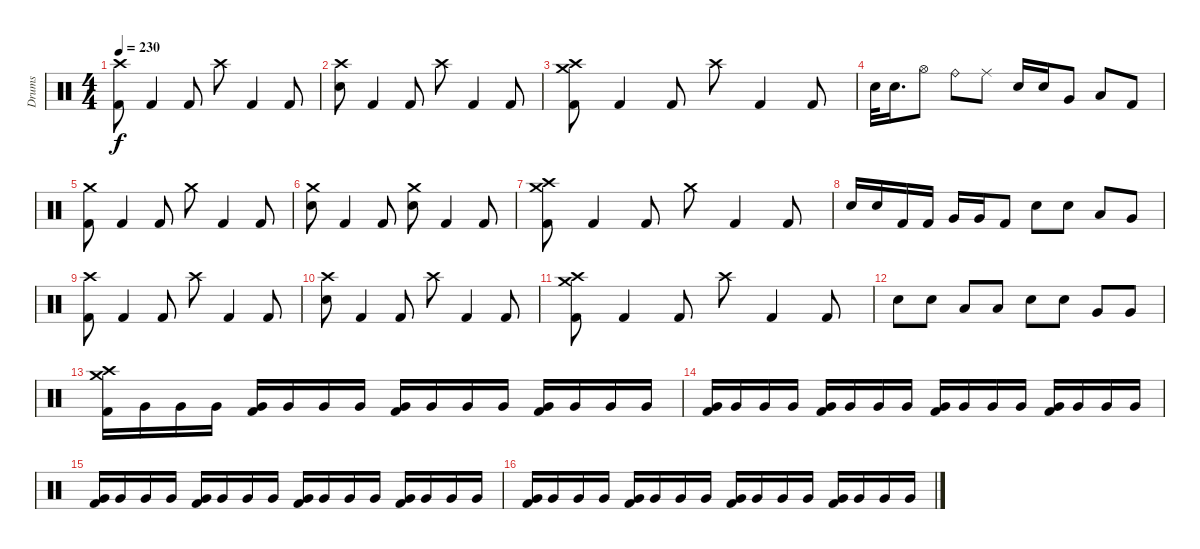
\track ("Drums" "Drums") {instrument percussion}
\staff {score}
\articulation defaults
\ts (4 4)
\tempo 230
\clef neutral
\ks c
("Crash high (hit)" "Kick (hit) 2").8{dy f} "Kick (hit) 2".4 "Kick (hit) 2".8 "Crash high (hit)".8 "Kick (hit) 2".4 "Kick (hit) 2".8 |
("Crash high (hit)" "Electric Snare (hit)").8 "Kick (hit) 2".4 "Kick (hit) 2".8 "Crash high (hit)".8 "Kick (hit) 2".4 "Kick (hit) 2".8 |
("Crash medium (hit)" "Crash high (hit)" "Kick (hit) 2").8 "Kick (hit) 2".4 "Kick (hit) 2".8 "Crash high (hit)".8 "Kick (hit) 2".4 "Kick (hit) 2".8 |
"Electric Snare (hit)".32 "Electric Snare (hit)".16{d} "Hi-Hat (open)".8 "Ride (bell)".8 "Ride (middle)".8 "Electric Snare (hit)".16 "Electric Snare (hit)".16 "Very Low Tom (hit)".8 "Low Floor Tom (hit)".8 "Kick (hit) 2".8 |
("Crash medium (hit)" "Kick (hit) 2").8 "Kick (hit) 2".4 "Kick (hit) 2".8 "Crash medium (hit)".8 "Kick (hit) 2".4 "Kick (hit) 2".8 |
("Crash medium (hit)" "Electric Snare (hit)").8 "Kick (hit) 2".4 "Kick (hit) 2".8 ("Crash medium (hit)" "Electric Snare (hit)").8 "Kick (hit) 2".4 "Kick (hit) 2".8 |
("Crash medium (hit)" "Crash high (hit)" "Kick (hit) 2").8 "Kick (hit) 2".4 "Kick (hit) 2".8 "Crash medium (hit)".8 "Kick (hit) 2".4 "Kick (hit) 2".8 |
"Electric Snare (hit)".16 "Electric Snare (hit)".16 "Kick (hit) 2".16 "Kick (hit) 2".16 "Very Low Tom (hit)".16 "Very Low Tom (hit)".16 "Kick (hit) 2".8 "Electric Snare (hit)".8 "Electric Snare (hit)".8 "Low Tom (hit)".8 "Very Low Tom (hit)".8 |
("Crash high (hit)" "Kick (hit) 2").8 "Kick (hit) 2".4 "Kick (hit) 2".8 "Crash high (hit)".8 "Kick (hit) 2".4 "Kick (hit) 2".8 |
("Crash high (hit)" "Electric Snare (hit)").8 "Kick (hit) 2".4 "Kick (hit) 2".8 "Crash high (hit)".8 "Kick (hit) 2".4 "Kick (hit) 2".8 |
("Crash medium (hit)" "Crash high (hit)" "Kick (hit) 2").8 "Kick (hit) 2".4 "Kick (hit) 2".8 "Crash high (hit)".8 "Kick (hit) 2".4 "Kick (hit) 2".8 |
"Electric Snare (hit)".8 "Electric Snare (hit)".8 "Low Tom (hit)".8 "Low Tom (hit)".8 "Electric Snare (hit)".8 "Electric Snare (hit)".8 "Very Low Tom (hit)".8 "Very Low Tom (hit)".8 |
("Crash medium (hit)" "Crash high (hit)" "Kick (hit) 2").16 "Very Low Tom (hit)".16 "Very Low Tom (hit)".16 "Very Low Tom (hit)".16 ("Very Low Tom (hit)" "Kick (hit) 2").16 "Very Low Tom (hit)".16 "Very Low Tom (hit)".16 "Very Low Tom (hit)".16 ("Very Low Tom (hit)" "Kick (hit) 2").16 "Very Low Tom (hit)".16 "Very Low Tom (hit)".16 "Very Low Tom (hit)".16 ("Very Low Tom (hit)" "Kick (hit) 2").16 "Very Low Tom (hit)".16 "Very Low Tom (hit)".16 "Very Low Tom (hit)".16 |
("Very Low Tom (hit)" "Kick (hit) 2").16 "Very Low Tom (hit)".16 "Very Low Tom (hit)".16 "Very Low Tom (hit)".16 ("Very Low Tom (hit)" "Kick (hit) 2").16 "Very Low Tom (hit)".16 "Very Low Tom (hit)".16 "Very Low Tom (hit)".16 ("Very Low Tom (hit)" "Kick (hit) 2").16 "Very Low Tom (hit)".16 "Very Low Tom (hit)".16 "Very Low Tom (hit)".16 ("Very Low Tom (hit)" "Kick (hit) 2").16 "Very Low Tom (hit)".16 "Very Low Tom (hit)".16 "Very Low Tom (hit)".16 |
("Very Low Tom (hit)" "Kick (hit) 2").16 "Very Low Tom (hit)".16 "Very Low Tom (hit)".16 "Very Low Tom (hit)".16 ("Very Low Tom (hit)" "Kick (hit) 2").16 "Very Low Tom (hit)".16 "Very Low Tom (hit)".16 "Very Low Tom (hit)".16 ("Very Low Tom (hit)" "Kick (hit) 2").16 "Very Low Tom (hit)".16 "Very Low Tom (hit)".16 "Very Low Tom (hit)".16 ("Very Low Tom (hit)" "Kick (hit) 2").16 "Very Low Tom (hit)".16 "Very Low Tom (hit)".16 "Very Low Tom (hit)".16 |
("Very Low Tom (hit)" "Kick (hit) 2").16 "Very Low Tom (hit)".16 "Very Low Tom (hit)".16 "Very Low Tom (hit)".16 ("Very Low Tom (hit)" "Kick (hit) 2").16 "Very Low Tom (hit)".16 "Very Low Tom (hit)".16 "Very Low Tom (hit)".16 ("Very Low Tom (hit)" "Kick (hit) 2").16 "Very Low Tom (hit)".16 "Very Low Tom (hit)".16 "Very Low Tom (hit)".16 ("Very Low Tom (hit)" "Kick (hit) 2").16 "Very Low Tom (hit)".16 "Very Low Tom (hit)".16 "Very Low Tom (hit)".16
